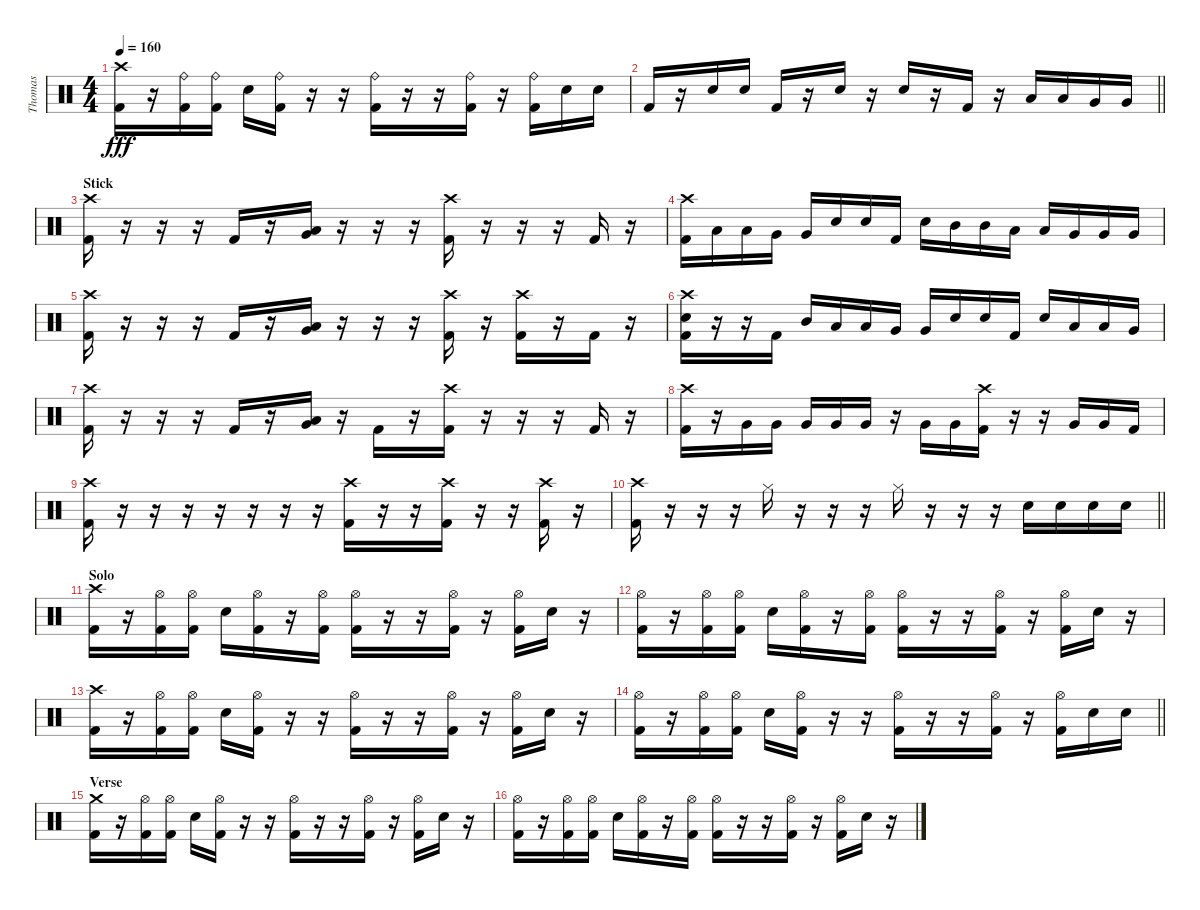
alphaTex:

\track ("Thomas " "Thomas ") {instrument percussion}
\staff {score}
\articulation defaults
\ts (4 4)
\tempo 160
\clef neutral
\ks c
("Crash high (hit)" "Kick (hit) 2").16{dy fff} r.16 ("Ride (bell)" "Kick (hit) 2").16 ("Ride (bell)" "Kick (hit) 2").16 "Electric Snare (hit)".16 ("Ride (bell)" "Kick (hit) 2").16 r.16 r.16 ("Ride (bell)" "Kick (hit) 2").16 r.16 r.16 ("Ride (bell)" "Kick (hit) 2").16 r.16 ("Ride (bell)" "Kick (hit) 2").16 "Electric Snare (hit)".16 "Electric Snare (hit)".16 |
\barLineRight lightlight "Kick (hit) 2".16
r.16 "Electric Snare (hit)".16 "Electric Snare (hit)".16 "Kick (hit) 2".16 r.16 "Electric Snare (hit)".16 r.16 "Electric Snare (hit)".16 r.16 "Kick (hit) 2".16 r.16 "Low Tom (hit)".16 "Low Tom (hit)".16 "Very Low Tom (hit)".16 "Very Low Tom (hit)".16 |
\section ("" "Stick")
("Crash high (hit)" "Kick (hit) 2").16 r.16 r.16 r.16 "Kick (hit) 2".16 r.16 ("Low Tom (hit)" "Very Low Tom (hit)").16 r.16 r.16 r.16 ("Crash high (hit)" "Kick (hit) 2").16 r.16 r.16 r.16 "Kick (hit) 2".16 r.16 |
("Crash high (hit)" "Kick (hit) 2").16 "Low Tom (hit)".16 "Low Tom (hit)".16 "Very Low Tom (hit)".16 "Very Low Tom (hit)".16 "Electric Snare (hit)".16 "Electric Snare (hit)".16 "Kick (hit) 2".16 "Electric Snare (hit)".16 "Mid Tom (hit)".16 "Mid Tom (hit)".16 "Low Tom (hit)".16 "Low Tom (hit)".16 "Very Low Tom (hit)".16 "Very Low Tom (hit)".16 "Very Low Tom (hit)".16 |
("Crash high (hit)" "Kick (hit) 2").16 r.16 r.16 r.16 "Kick (hit) 2".16 r.16 ("Low Tom (hit)" "Very Low Tom (hit)").16 r.16 r.16 r.16 ("Crash high (hit)" "Kick (hit) 2").16 r.16 ("Crash high (hit)" "Kick (hit) 2").16 r.16 "Kick (hit) 2".16 r.16 |
("Crash high (hit)" "Electric Snare (hit)" "Kick (hit) 2").16 r.16 r.16 "Kick (hit) 2".16 "Mid Tom (hit)".16 "Low Tom (hit)".16 "Low Tom (hit)".16 "Very Low Tom (hit)".16 "Very Low Tom (hit)".16 "Electric Snare (hit)".16 "Electric Snare (hit)".16 "Kick (hit) 2".16 "Electric Snare (hit)".16 "Low Tom (hit)".16 "Low Tom (hit)".16 "Very Low Tom (hit)".16 |
("Crash high (hit)" "Kick (hit) 2").16 r.16 r.16 r.16 "Kick (hit) 2".16 r.16 ("Low Tom (hit)" "Very Low Tom (hit)").16 r.16 "Kick (hit) 2".16 r.16 ("Crash high (hit)" "Kick (hit) 2").16 r.16 r.16 r.16 "Kick (hit) 2".16 r.16 |
("Crash high (hit)" "Kick (hit) 2").16 r.16 "Very Low Tom (hit)".16 "Very Low Tom (hit)".16 "Very Low Tom (hit)".16 "Very Low Tom (hit)".16 "Very Low Tom (hit)".16 r.16 "Very Low Tom (hit)".16 "Very Low Tom (hit)".16 ("Crash high (hit)" "Kick (hit) 2").16 r.16 r.16 "Very Low Tom (hit)".16 "Very Low Tom (hit)".16 "Kick (hit) 2".16 |
("Crash high (hit)" "Kick (hit) 2").16 r.16 r.16 r.16 r.16 r.16 r.16 r.16 ("Crash high (hit)" "Kick (hit) 2").16 r.16 r.16 ("Crash high (hit)" "Kick (hit) 2").16 r.16 r.16 ("Crash high (hit)" "Kick (hit) 2").16 r.16 |
\barLineRight lightlight
("Crash high (hit)" "Kick (hit) 2").16 r.16 r.16 r.16 "Hi-Hat (closed)".16 r.16 r.16 r.16 "Hi-Hat (closed)".16 r.16 r.16 r.16 "Electric Snare (hit)".16 "Electric Snare (hit)".16 "Electric Snare (hit)".16 "Electric Snare (hit)".16 |
\section ("" "Solo")
("Crash high (hit)" "Kick (hit) 2").16 r.16 ("Hi-Hat (open)" "Kick (hit) 2").16 ("Hi-Hat (open)" "Kick (hit) 2").16 "Electric Snare (hit)".16 ("Hi-Hat (open)" "Kick (hit) 2").16 r.16 ("Hi-Hat (open)" "Kick (hit) 2").16 ("Hi-Hat (open)" "Kick (hit) 2").16 r.16 r.16 ("Hi-Hat (open)" "Kick (hit) 2").16 r.16 ("Hi-Hat (open)" "Kick (hit) 2").16 "Electric Snare (hit)".16 r.16 |
("Hi-Hat (open)" "Kick (hit) 2").16 r.16 ("Hi-Hat (open)" "Kick (hit) 2").16 ("Hi-Hat (open)" "Kick (hit) 2").16 "Electric Snare (hit)".16 ("Hi-Hat (open)" "Kick (hit) 2").16 r.16 ("Hi-Hat (open)" "Kick (hit) 2").16 ("Hi-Hat (open)" "Kick (hit) 2").16 r.16 r.16 ("Hi-Hat (open)" "Kick (hit) 2").16 r.16 ("Hi-Hat (open)" "Kick (hit) 2").16 "Electric Snare (hit)".16 r.16 |
("Crash high (hit)" "Kick (hit) 2").16 r.16 ("Hi-Hat (open)" "Kick (hit) 2").16 ("Hi-Hat (open)" "Kick (hit) 2").16 "Electric Snare (hit)".16 ("Hi-Hat (open)" "Kick (hit) 2").16 r.16 r.16 ("Hi-Hat (open)" "Kick (hit) 2").16 r.16 r.16 ("Hi-Hat (open)" "Kick (hit) 2").16 r.16 ("Hi-Hat (open)" "Kick (hit) 2").16 "Electric Snare (hit)".16 r.16 |
\barLineRight lightlight
("Hi-Hat (open)" "Kick (hit) 2").16 r.16 ("Hi-Hat (open)" "Kick (hit) 2").16 ("Hi-Hat (open)" "Kick (hit) 2").16 "Electric Snare (hit)".16 ("Hi-Hat (open)" "Kick (hit) 2").16 r.16 r.16 ("Hi-Hat (open)" "Kick (hit) 2").16 r.16 r.16 ("Hi-Hat (open)" "Kick (hit) 2").16 r.16 ("Hi-Hat (open)" "Kick (hit) 2").16 "Electric Snare (hit)".16 "Electric Snare (hit)".16 |
\section ("" "Verse")
("Crash medium (hit)" "Kick (hit) 2").16 r.16 ("Hi-Hat (open)" "Kick (hit) 2").16 ("Hi-Hat (open)" "Kick (hit) 2").16 "Electric Snare (hit)".16 ("Hi-Hat (open)" "Kick (hit) 2").16 r.16 r.16 ("Hi-Hat (open)" "Kick (hit) 2").16 r.16 r.16 ("Hi-Hat (open)" "Kick (hit) 2").16 r.16 ("Hi-Hat (open)" "Kick (hit) 2").16 "Electric Snare (hit)".16 r.16 |
("Hi-Hat (open)" "Kick (hit) 2").16 r.16 ("Hi-Hat (open)" "Kick (hit) 2").16 ("Hi-Hat (open)" "Kick (hit) 2").16 "Electric Snare (hit)".16 ("Hi-Hat (open)" "Kick (hit) 2").16 r.16 ("Hi-Hat (open)" "Kick (hit) 2").16 ("Hi-Hat (open)" "Kick (hit) 2").16 r.16 r.16 ("Hi-Hat (open)" "Kick (hit) 2").16 r.16 ("Hi-Hat (open)" "Kick (hit) 2").16 "Electric Snare (hit)".16 r.16
